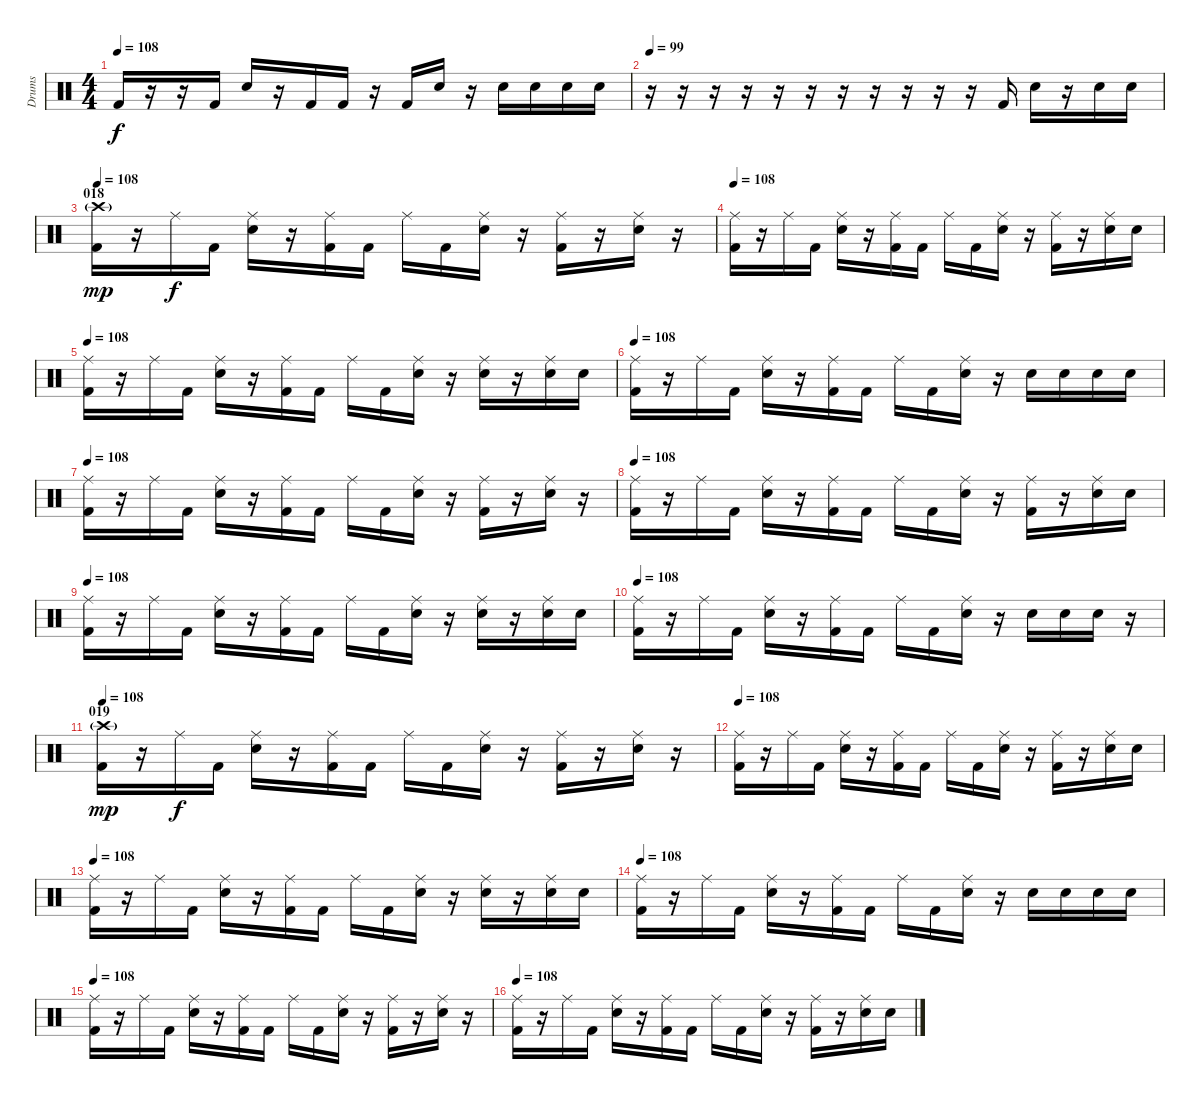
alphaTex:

\track ("Drums" "Drums") {instrument percussion}
\staff {score}
\articulation defaults
\ts (4 4)
\tempo 108
\clef neutral
\ks c "Kick (hit) 2".16{dy f}
r.16 r.16 "Kick (hit) 2".16 "Electric Snare (hit)".16 r.16 "Kick (hit) 2".16 "Kick (hit) 2".16 r.16 "Kick (hit) 2".16 "Electric Snare (hit)".16 r.16 "Electric Snare (hit)".16 "Electric Snare (hit)".16 "Electric Snare (hit)".16 "Electric Snare (hit)".16 |
\tempo 99
r.16 r.16 r.16 r.16 r.16 r.16 r.16 r.16 r.16 r.16 r.16 "Kick (hit) 2".16 "Electric Snare (hit)".16 r.16 "Electric Snare (hit)".16 "Electric Snare (hit)".16 |
\section ("" "018")
\tempo 108
("Kick (hit) 2" "Crash high (hit)"{g}).16{dy mp} r.16 "Ride (middle)".16{dy f} "Kick (hit) 2".16 ("Electric Snare (hit)" "Ride (middle)").16 r.16 ("Kick (hit) 2" "Ride (middle)").16 "Kick (hit) 2".16 "Ride (middle)".16 "Kick (hit) 2".16 ("Electric Snare (hit)" "Ride (middle)").16 r.16 ("Kick (hit) 2" "Ride (middle)").16 r.16 ("Electric Snare (hit)" "Ride (middle)").16 r.16 |
\tempo 108
("Kick (hit) 2" "Ride (middle)").16 r.16 "Ride (middle)".16 "Kick (hit) 2".16 ("Electric Snare (hit)" "Ride (middle)").16 r.16 ("Kick (hit) 2" "Ride (middle)").16 "Kick (hit) 2".16 "Ride (middle)".16 "Kick (hit) 2".16 ("Electric Snare (hit)" "Ride (middle)").16 r.16 ("Kick (hit) 2" "Ride (middle)").16 r.16 ("Electric Snare (hit)" "Ride (middle)").16 "Electric Snare (hit)".16 |
\tempo 108
("Kick (hit) 2" "Ride (middle)").16 r.16 "Ride (middle)".16 "Kick (hit) 2".16 ("Electric Snare (hit)" "Ride (middle)").16 r.16 ("Kick (hit) 2" "Ride (middle)").16 "Kick (hit) 2".16 "Ride (middle)".16 "Kick (hit) 2".16 ("Electric Snare (hit)" "Ride (middle)").16 r.16 ("Electric Snare (hit)" "Ride (middle)").16 r.16 ("Electric Snare (hit)" "Ride (middle)").16 "Electric Snare (hit)".16 |
\tempo 108
("Kick (hit) 2" "Ride (middle)").16 r.16 "Ride (middle)".16 "Kick (hit) 2".16 ("Electric Snare (hit)" "Ride (middle)").16 r.16 ("Kick (hit) 2" "Ride (middle)").16 "Kick (hit) 2".16 "Ride (middle)".16 "Kick (hit) 2".16 ("Electric Snare (hit)" "Ride (middle)").16 r.16 "Electric Snare (hit)".16 "Electric Snare (hit)".16 "Electric Snare (hit)".16 "Electric Snare (hit)".16 |
\tempo 108
("Kick (hit) 2" "Ride (middle)").16 r.16 "Ride (middle)".16 "Kick (hit) 2".16 ("Electric Snare (hit)" "Ride (middle)").16 r.16 ("Kick (hit) 2" "Ride (middle)").16 "Kick (hit) 2".16 "Ride (middle)".16 "Kick (hit) 2".16 ("Electric Snare (hit)" "Ride (middle)").16 r.16 ("Kick (hit) 2" "Ride (middle)").16 r.16 ("Electric Snare (hit)" "Ride (middle)").16 r.16 |
\tempo 108
("Kick (hit) 2" "Ride (middle)").16 r.16 "Ride (middle)".16 "Kick (hit) 2".16 ("Electric Snare (hit)" "Ride (middle)").16 r.16 ("Kick (hit) 2" "Ride (middle)").16 "Kick (hit) 2".16 "Ride (middle)".16 "Kick (hit) 2".16 ("Electric Snare (hit)" "Ride (middle)").16 r.16 ("Kick (hit) 2" "Ride (middle)").16 r.16 ("Electric Snare (hit)" "Ride (middle)").16 "Electric Snare (hit)".16 |
\tempo 108
("Kick (hit) 2" "Ride (middle)").16 r.16 "Ride (middle)".16 "Kick (hit) 2".16 ("Electric Snare (hit)" "Ride (middle)").16 r.16 ("Kick (hit) 2" "Ride (middle)").16 "Kick (hit) 2".16 "Ride (middle)".16 "Kick (hit) 2".16 ("Electric Snare (hit)" "Ride (middle)").16 r.16 ("Electric Snare (hit)" "Ride (middle)").16 r.16 ("Electric Snare (hit)" "Ride (middle)").16 "Electric Snare (hit)".16 |
\tempo 108
("Kick (hit) 2" "Ride (middle)").16 r.16 "Ride (middle)".16 "Kick (hit) 2".16 ("Electric Snare (hit)" "Ride (middle)").16 r.16 ("Kick (hit) 2" "Ride (middle)").16 "Kick (hit) 2".16 "Ride (middle)".16 "Kick (hit) 2".16 ("Electric Snare (hit)" "Ride (middle)").16 r.16 "Electric Snare (hit)".16 "Electric Snare (hit)".16 "Electric Snare (hit)".16 r.16 |
\section ("" "019")
\tempo 108
("Kick (hit) 2" "Crash high (hit)"{g}).16{dy mp} r.16 "Ride (middle)".16{dy f} "Kick (hit) 2".16 ("Electric Snare (hit)" "Ride (middle)").16 r.16 ("Kick (hit) 2" "Ride (middle)").16 "Kick (hit) 2".16 "Ride (middle)".16 "Kick (hit) 2".16 ("Electric Snare (hit)" "Ride (middle)").16 r.16 ("Kick (hit) 2" "Ride (middle)").16 r.16 ("Electric Snare (hit)" "Ride (middle)").16 r.16 |
\tempo 108
("Kick (hit) 2" "Ride (middle)").16 r.16 "Ride (middle)".16 "Kick (hit) 2".16 ("Electric Snare (hit)" "Ride (middle)").16 r.16 ("Kick (hit) 2" "Ride (middle)").16 "Kick (hit) 2".16 "Ride (middle)".16 "Kick (hit) 2".16 ("Electric Snare (hit)" "Ride (middle)").16 r.16 ("Kick (hit) 2" "Ride (middle)").16 r.16 ("Electric Snare (hit)" "Ride (middle)").16 "Electric Snare (hit)".16 |
\tempo 108
("Kick (hit) 2" "Ride (middle)").16 r.16 "Ride (middle)".16 "Kick (hit) 2".16 ("Electric Snare (hit)" "Ride (middle)").16 r.16 ("Kick (hit) 2" "Ride (middle)").16 "Kick (hit) 2".16 "Ride (middle)".16 "Kick (hit) 2".16 ("Electric Snare (hit)" "Ride (middle)").16 r.16 ("Electric Snare (hit)" "Ride (middle)").16 r.16 ("Electric Snare (hit)" "Ride (middle)").16 "Electric Snare (hit)".16 |
\tempo 108
("Kick (hit) 2" "Ride (middle)").16 r.16 "Ride (middle)".16 "Kick (hit) 2".16 ("Electric Snare (hit)" "Ride (middle)").16 r.16 ("Kick (hit) 2" "Ride (middle)").16 "Kick (hit) 2".16 "Ride (middle)".16 "Kick (hit) 2".16 ("Electric Snare (hit)" "Ride (middle)").16 r.16 "Electric Snare (hit)".16 "Electric Snare (hit)".16 "Electric Snare (hit)".16 "Electric Snare (hit)".16 |
\tempo 108
("Kick (hit) 2" "Ride (middle)").16 r.16 "Ride (middle)".16 "Kick (hit) 2".16 ("Electric Snare (hit)" "Ride (middle)").16 r.16 ("Kick (hit) 2" "Ride (middle)").16 "Kick (hit) 2".16 "Ride (middle)".16 "Kick (hit) 2".16 ("Electric Snare (hit)" "Ride (middle)").16 r.16 ("Kick (hit) 2" "Ride (middle)").16 r.16 ("Electric Snare (hit)" "Ride (middle)").16 r.16 |
\tempo 108
("Kick (hit) 2" "Ride (middle)").16 r.16 "Ride (middle)".16 "Kick (hit) 2".16 ("Electric Snare (hit)" "Ride (middle)").16 r.16 ("Kick (hit) 2" "Ride (middle)").16 "Kick (hit) 2".16 "Ride (middle)".16 "Kick (hit) 2".16 ("Electric Snare (hit)" "Ride (middle)").16 r.16 ("Kick (hit) 2" "Ride (middle)").16 r.16 ("Electric Snare (hit)" "Ride (middle)").16 "Electric Snare (hit)".16
